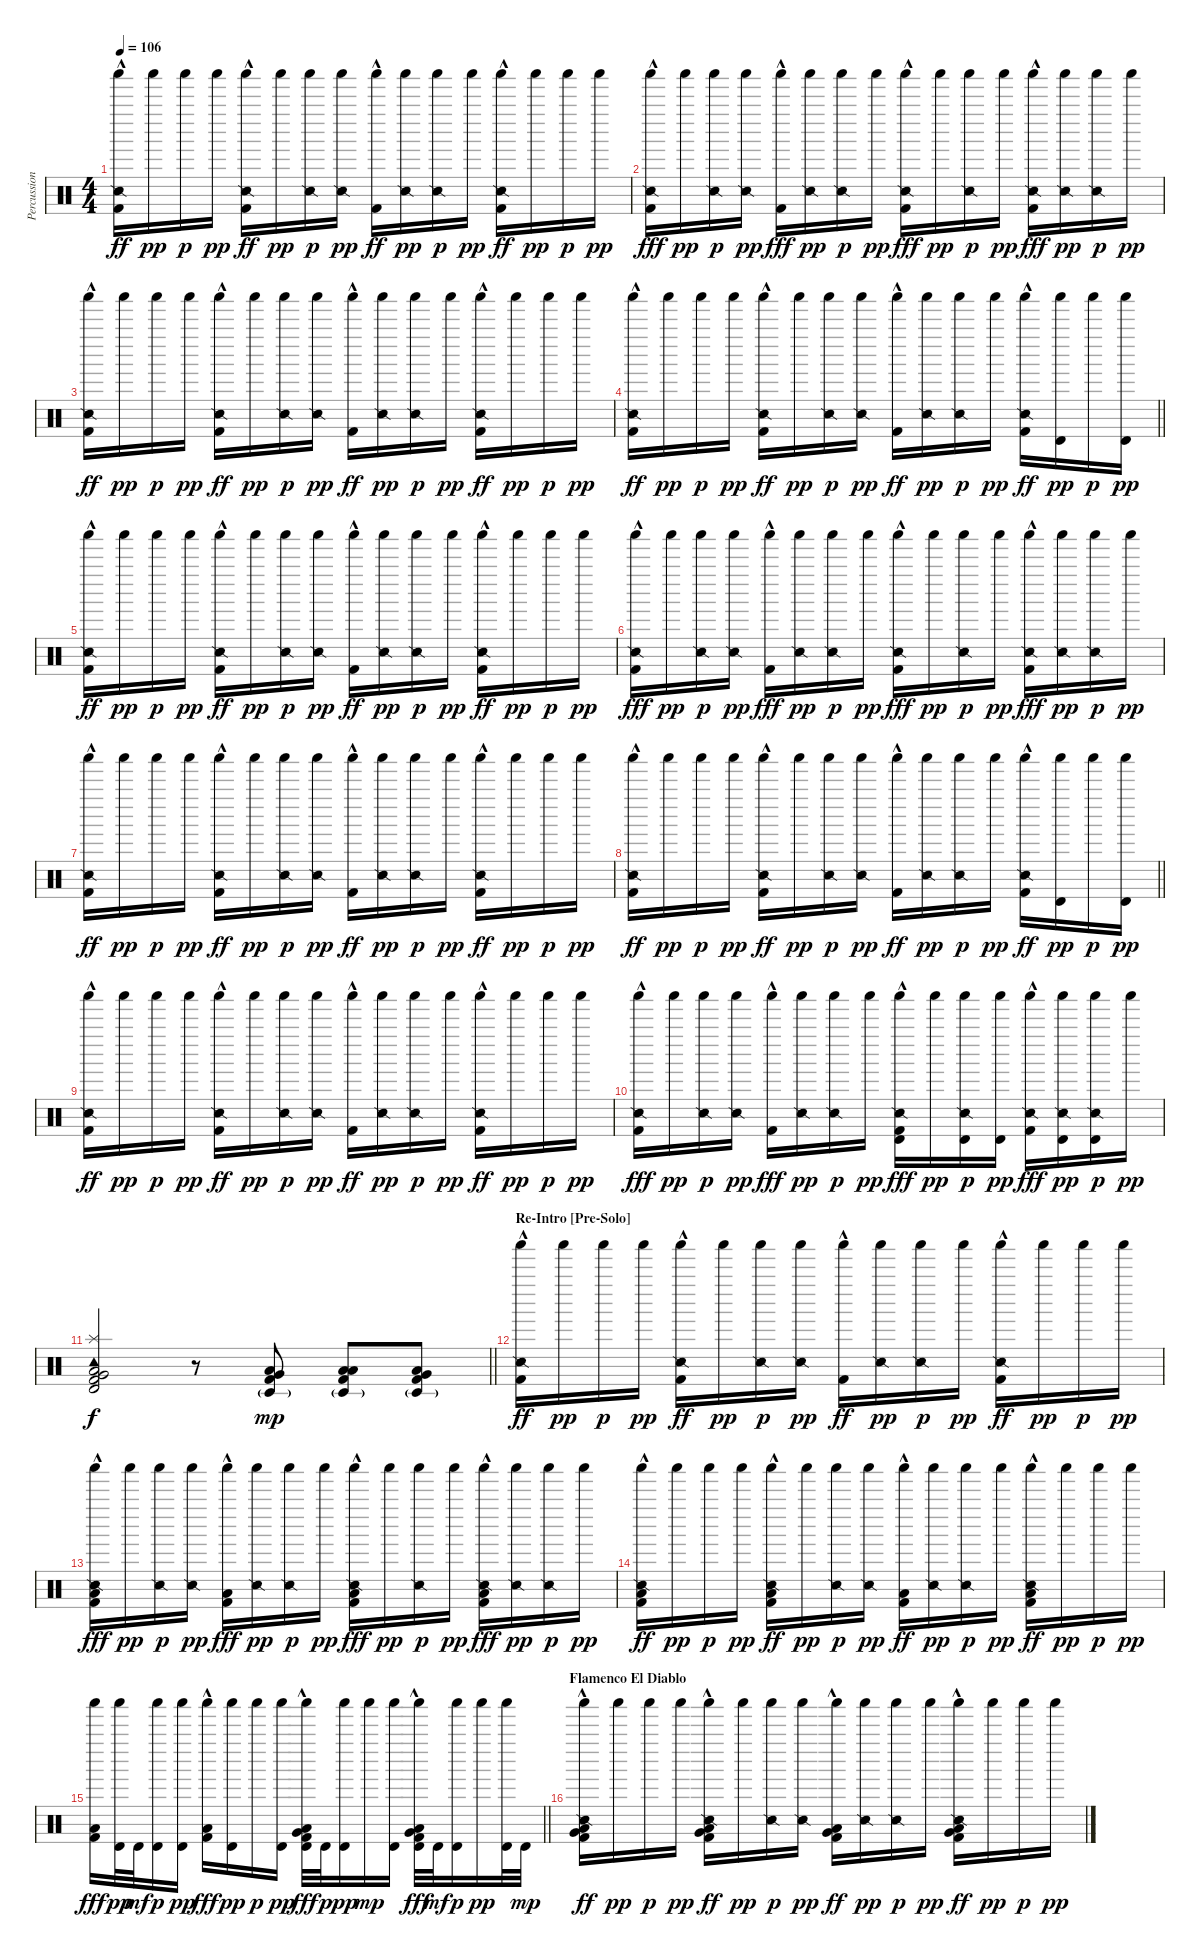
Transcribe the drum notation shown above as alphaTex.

\track ("Percussion" "Percussion") {instrument percussion}
\staff {score}
\articulation defaults
\ts (4 4)
\tempo 106
\clef neutral
\ks c
("Snare (side stick) 2" "Shaker (hit)" "Kick (hit) 2"{hac}).16{dy ff} "Shaker (hit)".16{dy pp} "Shaker (hit)".16{dy p} "Shaker (hit)".16{dy pp} ("Snare (side stick) 2" "Shaker (hit)" "Kick (hit) 2"{hac}).16{dy ff} "Shaker (hit)".16{dy pp} ("Snare (side stick) 2" "Shaker (hit)").16{dy p} ("Snare (side stick) 2" "Shaker (hit)").16{dy pp} ("Shaker (hit)" "Kick (hit) 2"{hac}).16{dy ff} ("Snare (side stick) 2" "Shaker (hit)").16{dy pp} ("Snare (side stick) 2" "Shaker (hit)").16{dy p} "Shaker (hit)".16{dy pp} ("Snare (side stick) 2" "Shaker (hit)" "Kick (hit) 2"{hac}).16{dy ff} "Shaker (hit)".16{dy pp} "Shaker (hit)".16{dy p} "Shaker (hit)".16{dy pp} |
("Snare (side stick) 2" "Shaker (hit)" "Kick (hit) 2"{hac}).16{dy fff} "Shaker (hit)".16{dy pp} ("Snare (side stick) 2" "Shaker (hit)").16{dy p} ("Snare (side stick) 2" "Shaker (hit)").16{dy pp} ("Shaker (hit)" "Kick (hit) 2"{hac}).16{dy fff} ("Snare (side stick) 2" "Shaker (hit)").16{dy pp} ("Snare (side stick) 2" "Shaker (hit)").16{dy p} "Shaker (hit)".16{dy pp} ("Snare (side stick) 2" "Shaker (hit)" "Kick (hit) 2"{hac}).16{dy fff} "Shaker (hit)".16{dy pp} ("Snare (side stick) 2" "Shaker (hit)").16{dy p} "Shaker (hit)".16{dy pp} ("Snare (side stick) 2" "Shaker (hit)" "Kick (hit) 2"{hac}).16{dy fff} ("Snare (side stick) 2" "Shaker (hit)").16{dy pp} ("Snare (side stick) 2" "Shaker (hit)").16{dy p} "Shaker (hit)".16{dy pp} |
("Snare (side stick) 2" "Shaker (hit)" "Kick (hit) 2"{hac}).16{dy ff} "Shaker (hit)".16{dy pp} "Shaker (hit)".16{dy p} "Shaker (hit)".16{dy pp} ("Snare (side stick) 2" "Shaker (hit)" "Kick (hit) 2"{hac}).16{dy ff} "Shaker (hit)".16{dy pp} ("Snare (side stick) 2" "Shaker (hit)").16{dy p} ("Snare (side stick) 2" "Shaker (hit)").16{dy pp} ("Shaker (hit)" "Kick (hit) 2"{hac}).16{dy ff} ("Snare (side stick) 2" "Shaker (hit)").16{dy pp} ("Snare (side stick) 2" "Shaker (hit)").16{dy p} "Shaker (hit)".16{dy pp} ("Snare (side stick) 2" "Shaker (hit)" "Kick (hit) 2"{hac}).16{dy ff} "Shaker (hit)".16{dy pp} "Shaker (hit)".16{dy p} "Shaker (hit)".16{dy pp} |
\barLineRight lightlight
("Snare (side stick) 2" "Shaker (hit)" "Kick (hit) 2"{hac}).16{dy ff} "Shaker (hit)".16{dy pp} "Shaker (hit)".16{dy p} "Shaker (hit)".16{dy pp} ("Snare (side stick) 2" "Shaker (hit)" "Kick (hit) 2"{hac}).16{dy ff} "Shaker (hit)".16{dy pp} ("Snare (side stick) 2" "Shaker (hit)").16{dy p} ("Snare (side stick) 2" "Shaker (hit)").16{dy pp} ("Shaker (hit)" "Kick (hit) 2"{hac}).16{dy ff} ("Snare (side stick) 2" "Shaker (hit)").16{dy pp} ("Snare (side stick) 2" "Shaker (hit)").16{dy p} "Shaker (hit)".16{dy pp} ("Snare (side stick) 2" "Shaker (hit)" "Kick (hit) 2"{hac}).16{dy ff} ("Timbale high (hit)" "Shaker (hit)").16{dy pp} "Shaker (hit)".16{dy p} ("Timbale high (hit)" "Shaker (hit)").16{dy pp} |
("Snare (side stick) 2" "Shaker (hit)" "Kick (hit) 2"{hac}).16{dy ff} "Shaker (hit)".16{dy pp} "Shaker (hit)".16{dy p} "Shaker (hit)".16{dy pp} ("Snare (side stick) 2" "Shaker (hit)" "Kick (hit) 2"{hac}).16{dy ff} "Shaker (hit)".16{dy pp} ("Snare (side stick) 2" "Shaker (hit)").16{dy p} ("Snare (side stick) 2" "Shaker (hit)").16{dy pp} ("Shaker (hit)" "Kick (hit) 2"{hac}).16{dy ff} ("Snare (side stick) 2" "Shaker (hit)").16{dy pp} ("Snare (side stick) 2" "Shaker (hit)").16{dy p} "Shaker (hit)".16{dy pp} ("Snare (side stick) 2" "Shaker (hit)" "Kick (hit) 2"{hac}).16{dy ff} "Shaker (hit)".16{dy pp} "Shaker (hit)".16{dy p} "Shaker (hit)".16{dy pp} |
("Snare (side stick) 2" "Shaker (hit)" "Kick (hit) 2"{hac}).16{dy fff} "Shaker (hit)".16{dy pp} ("Snare (side stick) 2" "Shaker (hit)").16{dy p} ("Snare (side stick) 2" "Shaker (hit)").16{dy pp} ("Shaker (hit)" "Kick (hit) 2"{hac}).16{dy fff} ("Snare (side stick) 2" "Shaker (hit)").16{dy pp} ("Snare (side stick) 2" "Shaker (hit)").16{dy p} "Shaker (hit)".16{dy pp} ("Snare (side stick) 2" "Shaker (hit)" "Kick (hit) 2"{hac}).16{dy fff} "Shaker (hit)".16{dy pp} ("Snare (side stick) 2" "Shaker (hit)").16{dy p} "Shaker (hit)".16{dy pp} ("Snare (side stick) 2" "Shaker (hit)" "Kick (hit) 2"{hac}).16{dy fff} ("Snare (side stick) 2" "Shaker (hit)").16{dy pp} ("Snare (side stick) 2" "Shaker (hit)").16{dy p} "Shaker (hit)".16{dy pp} |
("Snare (side stick) 2" "Shaker (hit)" "Kick (hit) 2"{hac}).16{dy ff} "Shaker (hit)".16{dy pp} "Shaker (hit)".16{dy p} "Shaker (hit)".16{dy pp} ("Snare (side stick) 2" "Shaker (hit)" "Kick (hit) 2"{hac}).16{dy ff} "Shaker (hit)".16{dy pp} ("Snare (side stick) 2" "Shaker (hit)").16{dy p} ("Snare (side stick) 2" "Shaker (hit)").16{dy pp} ("Shaker (hit)" "Kick (hit) 2"{hac}).16{dy ff} ("Snare (side stick) 2" "Shaker (hit)").16{dy pp} ("Snare (side stick) 2" "Shaker (hit)").16{dy p} "Shaker (hit)".16{dy pp} ("Snare (side stick) 2" "Shaker (hit)" "Kick (hit) 2"{hac}).16{dy ff} "Shaker (hit)".16{dy pp} "Shaker (hit)".16{dy p} "Shaker (hit)".16{dy pp} |
\barLineRight lightlight
("Snare (side stick) 2" "Shaker (hit)" "Kick (hit) 2"{hac}).16{dy ff} "Shaker (hit)".16{dy pp} "Shaker (hit)".16{dy p} "Shaker (hit)".16{dy pp} ("Snare (side stick) 2" "Shaker (hit)" "Kick (hit) 2"{hac}).16{dy ff} "Shaker (hit)".16{dy pp} ("Snare (side stick) 2" "Shaker (hit)").16{dy p} ("Snare (side stick) 2" "Shaker (hit)").16{dy pp} ("Shaker (hit)" "Kick (hit) 2"{hac}).16{dy ff} ("Snare (side stick) 2" "Shaker (hit)").16{dy pp} ("Snare (side stick) 2" "Shaker (hit)").16{dy p} "Shaker (hit)".16{dy pp} ("Snare (side stick) 2" "Shaker (hit)" "Kick (hit) 2"{hac}).16{dy ff} ("Timbale high (hit)" "Shaker (hit)").16{dy pp} "Shaker (hit)".16{dy p} ("Timbale high (hit)" "Shaker (hit)").16{dy pp} |
("Snare (side stick) 2" "Shaker (hit)" "Kick (hit) 2"{hac}).16{dy ff} "Shaker (hit)".16{dy pp} "Shaker (hit)".16{dy p} "Shaker (hit)".16{dy pp} ("Snare (side stick) 2" "Shaker (hit)" "Kick (hit) 2"{hac}).16{dy ff} "Shaker (hit)".16{dy pp} ("Snare (side stick) 2" "Shaker (hit)").16{dy p} ("Snare (side stick) 2" "Shaker (hit)").16{dy pp} ("Shaker (hit)" "Kick (hit) 2"{hac}).16{dy ff} ("Snare (side stick) 2" "Shaker (hit)").16{dy pp} ("Snare (side stick) 2" "Shaker (hit)").16{dy p} "Shaker (hit)".16{dy pp} ("Snare (side stick) 2" "Shaker (hit)" "Kick (hit) 2"{hac}).16{dy ff} "Shaker (hit)".16{dy pp} "Shaker (hit)".16{dy p} "Shaker (hit)".16{dy pp} |
("Snare (side stick) 2" "Shaker (hit)" "Kick (hit) 2"{hac}).16{dy fff} "Shaker (hit)".16{dy pp} ("Snare (side stick) 2" "Shaker (hit)").16{dy p} ("Snare (side stick) 2" "Shaker (hit)").16{dy pp} ("Shaker (hit)" "Kick (hit) 2"{hac}).16{dy fff} ("Snare (side stick) 2" "Shaker (hit)").16{dy pp} ("Snare (side stick) 2" "Shaker (hit)").16{dy p} "Shaker (hit)".16{dy pp} ("Timbale high (hit)" "Snare (side stick) 2" "Shaker (hit)" "Kick (hit) 2"{hac}).16{dy fff} "Shaker (hit)".16{dy pp} ("Timbale high (hit)" "Snare (side stick) 2" "Shaker (hit)").16{dy p} ("Timbale high (hit)" "Shaker (hit)").16{dy pp} ("Snare (side stick) 2" "Shaker (hit)" "Kick (hit) 2"{hac}).16{dy fff} ("Timbale high (hit)" "Snare (side stick) 2" "Shaker (hit)").16{dy pp} ("Timbale high (hit)" "Snare (side stick) 2" "Shaker (hit)").16{dy p} "Shaker (hit)".16{dy pp} |
\barLineRight lightlight
("Timbale high (hit)" "Tambourine (hit)" "Splash (hit)" "Very Low Tom (hit)" "Low Floor Tom (hit)" "Kick (hit) 2").2{dy f} r.8 ("Timbale low (hit)"{g} "Very Low Tom (hit)" "Low Floor Tom (hit)" "Kick (hit) 2").8{dy mp} ("Timbale low (hit)"{g} "Low Floor Tom (hit)" "Low Floor Tom (hit)" "Kick (hit) 2").8 ("Timbale low (hit)"{g} "Very Low Tom (hit)" "Low Floor Tom (hit)" "Kick (hit) 2").8 |
\section ("" "Re-Intro [Pre-Solo]")
("Snare (side stick) 2" "Shaker (hit)" "Kick (hit) 2"{hac}).16{dy ff} "Shaker (hit)".16{dy pp} "Shaker (hit)".16{dy p} "Shaker (hit)".16{dy pp} ("Snare (side stick) 2" "Shaker (hit)" "Kick (hit) 2"{hac}).16{dy ff} "Shaker (hit)".16{dy pp} ("Snare (side stick) 2" "Shaker (hit)").16{dy p} ("Snare (side stick) 2" "Shaker (hit)").16{dy pp} ("Shaker (hit)" "Kick (hit) 2"{hac}).16{dy ff} ("Snare (side stick) 2" "Shaker (hit)").16{dy pp} ("Snare (side stick) 2" "Shaker (hit)").16{dy p} "Shaker (hit)".16{dy pp} ("Snare (side stick) 2" "Shaker (hit)" "Kick (hit) 2"{hac}).16{dy ff} "Shaker (hit)".16{dy pp} "Shaker (hit)".16{dy p} "Shaker (hit)".16{dy pp} |
("Low Floor Tom (hit)" "Snare (side stick) 2" "Shaker (hit)" "Kick (hit) 2"{hac}).16{dy fff} "Shaker (hit)".16{dy pp} ("Snare (side stick) 2" "Shaker (hit)").16{dy p} ("Snare (side stick) 2" "Shaker (hit)").16{dy pp} ("Low Floor Tom (hit)" "Shaker (hit)" "Kick (hit) 2"{hac}).16{dy fff} ("Snare (side stick) 2" "Shaker (hit)").16{dy pp} ("Snare (side stick) 2" "Shaker (hit)").16{dy p} "Shaker (hit)".16{dy pp} ("Low Floor Tom (hit)" "Snare (side stick) 2" "Shaker (hit)" "Kick (hit) 2"{hac}).16{dy fff} "Shaker (hit)".16{dy pp} ("Snare (side stick) 2" "Shaker (hit)").16{dy p} "Shaker (hit)".16{dy pp} ("Low Floor Tom (hit)" "Snare (side stick) 2" "Shaker (hit)" "Kick (hit) 2"{hac}).16{dy fff} ("Snare (side stick) 2" "Shaker (hit)").16{dy pp} ("Snare (side stick) 2" "Shaker (hit)").16{dy p} "Shaker (hit)".16{dy pp} |
("Low Floor Tom (hit)" "Snare (side stick) 2" "Shaker (hit)" "Kick (hit) 2"{hac}).16{dy ff} "Shaker (hit)".16{dy pp} "Shaker (hit)".16{dy p} "Shaker (hit)".16{dy pp} ("Low Floor Tom (hit)" "Snare (side stick) 2" "Shaker (hit)" "Kick (hit) 2"{hac}).16{dy ff} "Shaker (hit)".16{dy pp} ("Snare (side stick) 2" "Shaker (hit)").16{dy p} ("Snare (side stick) 2" "Shaker (hit)").16{dy pp} ("Low Floor Tom (hit)" "Shaker (hit)" "Kick (hit) 2"{hac}).16{dy ff} ("Snare (side stick) 2" "Shaker (hit)").16{dy pp} ("Snare (side stick) 2" "Shaker (hit)").16{dy p} "Shaker (hit)".16{dy pp} ("Low Floor Tom (hit)" "Snare (side stick) 2" "Shaker (hit)" "Kick (hit) 2"{hac}).16{dy ff} "Shaker (hit)".16{dy pp} "Shaker (hit)".16{dy p} "Shaker (hit)".16{dy pp} |
\barLineRight lightlight
("Low Floor Tom (hit)" "Shaker (hit)" "Kick (hit) 2").16{dy fff} ("Timbale high (hit)" "Shaker (hit)").32{dy pp} "Timbale high (hit)".32{dy mf} ("Timbale high (hit)" "Shaker (hit)").16{dy p} ("Timbale high (hit)" "Shaker (hit)").16{dy pp} ("Low Floor Tom (hit)" "Shaker (hit)" "Kick (hit) 2"{hac}).16{dy fff} ("Timbale high (hit)" "Shaker (hit)").16{dy pp} "Shaker (hit)".16{dy p} ("Timbale high (hit)" "Shaker (hit)").16{dy pp} ("Low Floor Tom (hit)" "Very Low Tom (hit)" "Timbale high (hit)" "Shaker (hit)" "Kick (hit) 2"{hac}).32{dy fff} "Timbale high (hit)".32{dy p} ("Timbale high (hit)" "Shaker (hit)").16{dy pp} "Shaker (hit)".16{dy mp} ("Timbale high (hit)" "Shaker (hit)").16 ("Low Floor Tom (hit)" "Very Low Tom (hit)" "Timbale high (hit)" "Shaker (hit)" "Kick (hit) 2"{hac}).32{dy fff} "Timbale high (hit)".32{dy mf} ("Timbale high (hit)" "Shaker (hit)").16{dy p} "Shaker (hit)".16{dy pp} ("Timbale high (hit)" "Shaker (hit)").32 "Timbale high (hit)".32{dy mp} |
\section ("" "Flamenco El Diablo")
("Low Floor Tom (hit)" "Very Low Tom (hit)" "Snare (side stick) 2" "Shaker (hit)" "Kick (hit) 2"{hac}).16{dy ff} "Shaker (hit)".16{dy pp} "Shaker (hit)".16{dy p} "Shaker (hit)".16{dy pp} ("Low Floor Tom (hit)" "Very Low Tom (hit)" "Snare (side stick) 2" "Shaker (hit)" "Kick (hit) 2"{hac}).16{dy ff} "Shaker (hit)".16{dy pp} ("Snare (side stick) 2" "Shaker (hit)").16{dy p} ("Snare (side stick) 2" "Shaker (hit)").16{dy pp} ("Low Floor Tom (hit)" "Very Low Tom (hit)" "Shaker (hit)" "Kick (hit) 2"{hac}).16{dy ff} ("Snare (side stick) 2" "Shaker (hit)").16{dy pp} ("Snare (side stick) 2" "Shaker (hit)").16{dy p} "Shaker (hit)".16{dy pp} ("Low Floor Tom (hit)" "Very Low Tom (hit)" "Snare (side stick) 2" "Shaker (hit)" "Kick (hit) 2"{hac}).16{dy ff} "Shaker (hit)".16{dy pp} "Shaker (hit)".16{dy p} "Shaker (hit)".16{dy pp}
